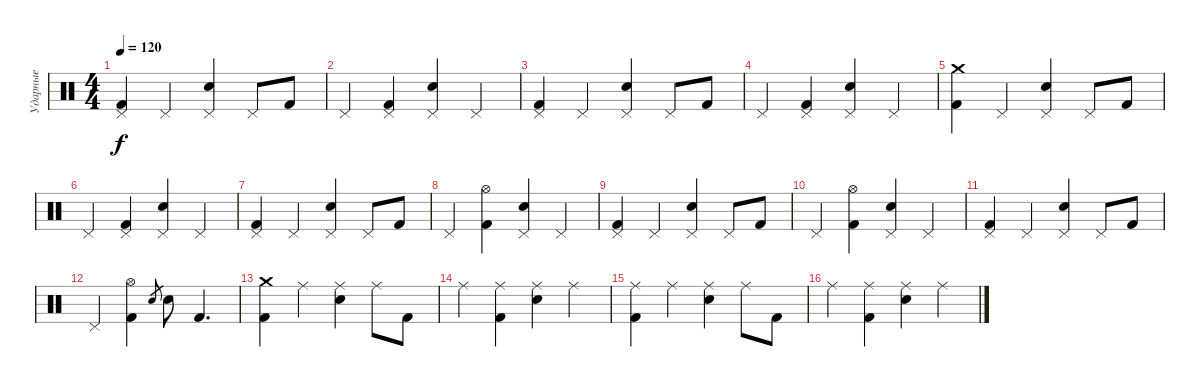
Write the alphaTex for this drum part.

\track ("Ударные" "Ударные") {instrument percussion}
\staff {score}
\articulation defaults
\ts (4 4)
\tempo 120
\clef neutral
\ks c
("Pedal Hi-Hat (hit)" "Kick (hit) 2").4{dy f} "Pedal Hi-Hat (hit)".4 ("Pedal Hi-Hat (hit)" "Electric Snare (hit)").4 "Pedal Hi-Hat (hit)".8 "Kick (hit) 2".8 |
"Pedal Hi-Hat (hit)".4 ("Pedal Hi-Hat (hit)" "Kick (hit) 2").4 ("Pedal Hi-Hat (hit)" "Electric Snare (hit)").4 "Pedal Hi-Hat (hit)".4 |
("Pedal Hi-Hat (hit)" "Kick (hit) 2").4 "Pedal Hi-Hat (hit)".4 ("Pedal Hi-Hat (hit)" "Electric Snare (hit)").4 "Pedal Hi-Hat (hit)".8 "Kick (hit) 2".8 |
"Pedal Hi-Hat (hit)".4 ("Pedal Hi-Hat (hit)" "Kick (hit) 2").4 ("Pedal Hi-Hat (hit)" "Electric Snare (hit)").4 "Pedal Hi-Hat (hit)".4 |
("Crash medium (hit)" "Kick (hit) 2").4 "Pedal Hi-Hat (hit)".4 ("Pedal Hi-Hat (hit)" "Electric Snare (hit)").4 "Pedal Hi-Hat (hit)".8 "Kick (hit) 2".8 |
"Pedal Hi-Hat (hit)".4 ("Pedal Hi-Hat (hit)" "Kick (hit) 2").4 ("Pedal Hi-Hat (hit)" "Electric Snare (hit)").4 "Pedal Hi-Hat (hit)".4 |
("Pedal Hi-Hat (hit)" "Kick (hit) 2").4 "Pedal Hi-Hat (hit)".4 ("Pedal Hi-Hat (hit)" "Electric Snare (hit)").4 "Pedal Hi-Hat (hit)".8 "Kick (hit) 2".8 |
"Pedal Hi-Hat (hit)".4 ("Hi-Hat (open)" "Kick (hit) 2").4 ("Pedal Hi-Hat (hit)" "Electric Snare (hit)").4 "Pedal Hi-Hat (hit)".4 |
("Pedal Hi-Hat (hit)" "Kick (hit) 2").4 "Pedal Hi-Hat (hit)".4 ("Pedal Hi-Hat (hit)" "Electric Snare (hit)").4 "Pedal Hi-Hat (hit)".8 "Kick (hit) 2".8 |
"Pedal Hi-Hat (hit)".4 ("Hi-Hat (open)" "Kick (hit) 2").4 ("Pedal Hi-Hat (hit)" "Electric Snare (hit)").4 "Pedal Hi-Hat (hit)".4 |
("Pedal Hi-Hat (hit)" "Kick (hit) 2").4 "Pedal Hi-Hat (hit)".4 ("Pedal Hi-Hat (hit)" "Electric Snare (hit)").4 "Pedal Hi-Hat (hit)".8 "Kick (hit) 2".8 |
"Pedal Hi-Hat (hit)".4 ("Hi-Hat (open)" "Kick (hit) 2").4 "Electric Snare (hit)".8{gr} "Electric Snare (hit)".8 "Kick (hit) 2".4{d} |
("Crash medium (hit)" "Kick (hit) 2").4 "Ride (middle)".4 ("Ride (middle)" "Electric Snare (hit)").4 "Ride (middle)".8 "Kick (hit) 2".8 |
"Ride (middle)".4 ("Ride (middle)" "Kick (hit) 2").4 ("Ride (middle)" "Electric Snare (hit)").4 "Ride (middle)".4 |
("Ride (middle)" "Kick (hit) 2").4 "Ride (middle)".4 ("Ride (middle)" "Electric Snare (hit)").4 "Ride (middle)".8 "Kick (hit) 2".8 |
"Ride (middle)".4 ("Ride (middle)" "Kick (hit) 2").4 ("Ride (middle)" "Electric Snare (hit)").4 "Ride (middle)".4
